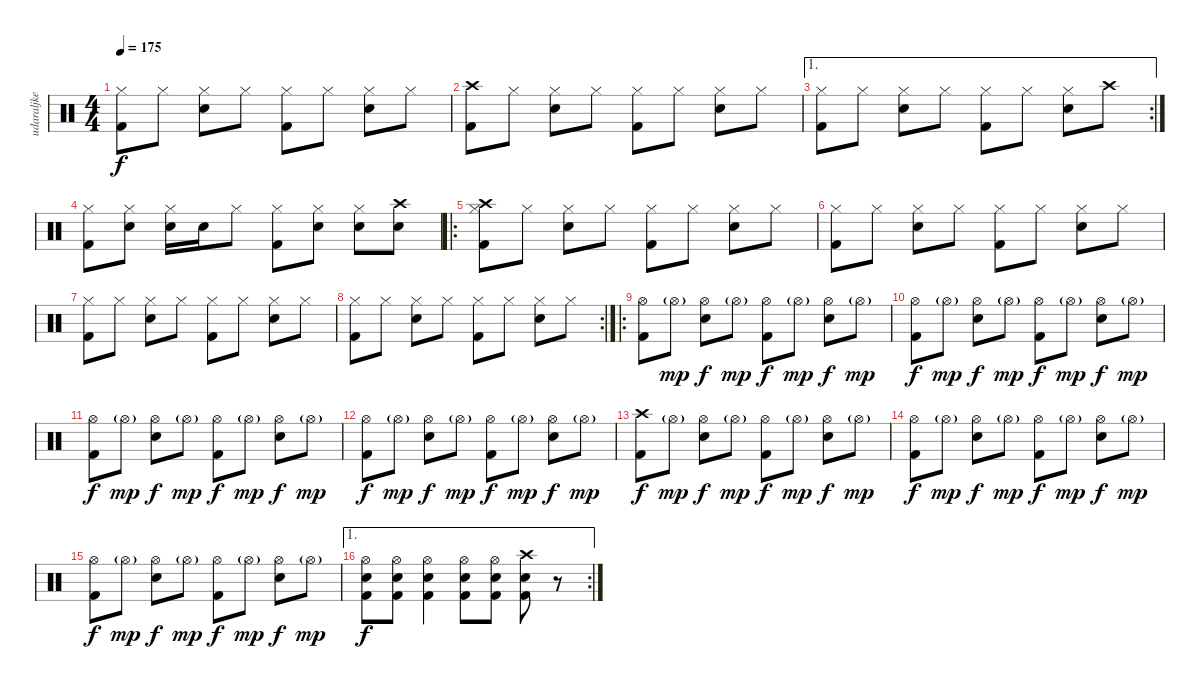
\track ("udaraljke" "udaraljke") {instrument percussion}
\staff {score}
\articulation defaults
\ts (4 4)
\tempo 175
\clef neutral
\ks c
("Hi-Hat (closed)" "Kick (hit) 2").8{dy f} "Hi-Hat (closed)".8 ("Hi-Hat (closed)" "Snare (hit) 2").8 "Hi-Hat (closed)".8 ("Hi-Hat (closed)" "Kick (hit) 2").8 "Hi-Hat (closed)".8 ("Hi-Hat (closed)" "Snare (hit) 2").8 "Hi-Hat (closed)".8 |
("Crash high (hit)" "Kick (hit) 2").8 "Hi-Hat (closed)".8 ("Hi-Hat (closed)" "Snare (hit) 2").8 "Hi-Hat (closed)".8 ("Hi-Hat (closed)" "Kick (hit) 2").8 "Hi-Hat (closed)".8 ("Hi-Hat (closed)" "Snare (hit) 2").8 "Hi-Hat (closed)".8 |
\ae 1
\rc 2
("Hi-Hat (closed)" "Kick (hit) 2").8 "Hi-Hat (closed)".8 ("Hi-Hat (closed)" "Snare (hit) 2").8 "Hi-Hat (closed)".8 ("Hi-Hat (closed)" "Kick (hit) 2").8 "Hi-Hat (closed)".8 ("Hi-Hat (closed)" "Snare (hit) 2").8 "Crash high (hit)".8 |
("Hi-Hat (closed)" "Kick (hit) 2").8 ("Hi-Hat (closed)" "Snare (hit) 2").8 ("Hi-Hat (closed)" "Snare (hit) 2").16 "Snare (hit) 2".16 "Hi-Hat (closed)".8 ("Hi-Hat (closed)" "Kick (hit) 2").8 ("Hi-Hat (closed)" "Snare (hit) 2").8 ("Hi-Hat (closed)" "Snare (hit) 2").8 ("Crash high (hit)" "Snare (hit) 2").8 |
\ro
("Hi-Hat (closed)" "Crash high (hit)" "Kick (hit) 2").8 "Hi-Hat (closed)".8 ("Hi-Hat (closed)" "Snare (hit) 2").8 "Hi-Hat (closed)".8 ("Hi-Hat (closed)" "Kick (hit) 2").8 "Hi-Hat (closed)".8 ("Hi-Hat (closed)" "Snare (hit) 2").8 "Hi-Hat (closed)".8 |
("Hi-Hat (closed)" "Kick (hit) 2").8 "Hi-Hat (closed)".8 ("Hi-Hat (closed)" "Snare (hit) 2").8 "Hi-Hat (closed)".8 ("Hi-Hat (closed)" "Kick (hit) 2").8 "Hi-Hat (closed)".8 ("Hi-Hat (closed)" "Snare (hit) 2").8 "Hi-Hat (closed)".8 |
("Hi-Hat (closed)" "Kick (hit) 2").8 "Hi-Hat (closed)".8 ("Hi-Hat (closed)" "Snare (hit) 2").8 "Hi-Hat (closed)".8 ("Hi-Hat (closed)" "Kick (hit) 2").8 "Hi-Hat (closed)".8 ("Hi-Hat (closed)" "Snare (hit) 2").8 "Hi-Hat (closed)".8 |
\rc 2
("Hi-Hat (closed)" "Kick (hit) 2").8 "Hi-Hat (closed)".8 ("Hi-Hat (closed)" "Snare (hit) 2").8 "Hi-Hat (closed)".8 ("Hi-Hat (closed)" "Kick (hit) 2").8 "Hi-Hat (closed)".8 ("Hi-Hat (closed)" "Snare (hit) 2").8 "Hi-Hat (closed)".8 |
\ro
("Hi-Hat (open)" "Kick (hit) 2").8 "Hi-Hat (open)"{g}.8{dy mp} ("Hi-Hat (open)" "Snare (hit) 2").8{dy f} "Hi-Hat (open)"{g}.8{dy mp} ("Hi-Hat (open)" "Kick (hit) 2").8{dy f} "Hi-Hat (open)"{g}.8{dy mp} ("Hi-Hat (open)" "Snare (hit) 2").8{dy f} "Hi-Hat (open)"{g}.8{dy mp} |
("Hi-Hat (open)" "Kick (hit) 2").8{dy f} "Hi-Hat (open)"{g}.8{dy mp} ("Hi-Hat (open)" "Snare (hit) 2").8{dy f} "Hi-Hat (open)"{g}.8{dy mp} ("Hi-Hat (open)" "Kick (hit) 2").8{dy f} "Hi-Hat (open)"{g}.8{dy mp} ("Hi-Hat (open)" "Snare (hit) 2").8{dy f} "Hi-Hat (open)"{g}.8{dy mp} |
("Hi-Hat (open)" "Kick (hit) 2").8{dy f} "Hi-Hat (open)"{g}.8{dy mp} ("Hi-Hat (open)" "Snare (hit) 2").8{dy f} "Hi-Hat (open)"{g}.8{dy mp} ("Hi-Hat (open)" "Kick (hit) 2").8{dy f} "Hi-Hat (open)"{g}.8{dy mp} ("Hi-Hat (open)" "Snare (hit) 2").8{dy f} "Hi-Hat (open)"{g}.8{dy mp} |
("Hi-Hat (open)" "Kick (hit) 2").8{dy f} "Hi-Hat (open)"{g}.8{dy mp} ("Hi-Hat (open)" "Snare (hit) 2").8{dy f} "Hi-Hat (open)"{g}.8{dy mp} ("Hi-Hat (open)" "Kick (hit) 2").8{dy f} "Hi-Hat (open)"{g}.8{dy mp} ("Hi-Hat (open)" "Snare (hit) 2").8{dy f} "Hi-Hat (open)"{g}.8{dy mp} |
("Crash high (hit)" "Kick (hit) 2").8{dy f} "Hi-Hat (open)"{g}.8{dy mp} ("Hi-Hat (open)" "Snare (hit) 2").8{dy f} "Hi-Hat (open)"{g}.8{dy mp} ("Hi-Hat (open)" "Kick (hit) 2").8{dy f} "Hi-Hat (open)"{g}.8{dy mp} ("Hi-Hat (open)" "Snare (hit) 2").8{dy f} "Hi-Hat (open)"{g}.8{dy mp} |
("Hi-Hat (open)" "Kick (hit) 2").8{dy f} "Hi-Hat (open)"{g}.8{dy mp} ("Hi-Hat (open)" "Snare (hit) 2").8{dy f} "Hi-Hat (open)"{g}.8{dy mp} ("Hi-Hat (open)" "Kick (hit) 2").8{dy f} "Hi-Hat (open)"{g}.8{dy mp} ("Hi-Hat (open)" "Snare (hit) 2").8{dy f} "Hi-Hat (open)"{g}.8{dy mp} |
("Hi-Hat (open)" "Kick (hit) 2").8{dy f} "Hi-Hat (open)"{g}.8{dy mp} ("Hi-Hat (open)" "Snare (hit) 2").8{dy f} "Hi-Hat (open)"{g}.8{dy mp} ("Hi-Hat (open)" "Kick (hit) 2").8{dy f} "Hi-Hat (open)"{g}.8{dy mp} ("Hi-Hat (open)" "Snare (hit) 2").8{dy f} "Hi-Hat (open)"{g}.8{dy mp} |
\ae 1
\rc 2
("Hi-Hat (open)" "Snare (hit) 2" "Kick (hit) 2").8{dy f} ("Hi-Hat (open)" "Snare (hit) 2" "Kick (hit) 2").8 ("Hi-Hat (open)" "Snare (hit) 2" "Kick (hit) 2").4 ("Hi-Hat (open)" "Snare (hit) 2" "Kick (hit) 2").8 ("Hi-Hat (open)" "Snare (hit) 2" "Kick (hit) 2").8 ("Crash high (hit)" "Snare (hit) 2" "Kick (hit) 2").8 r.8
